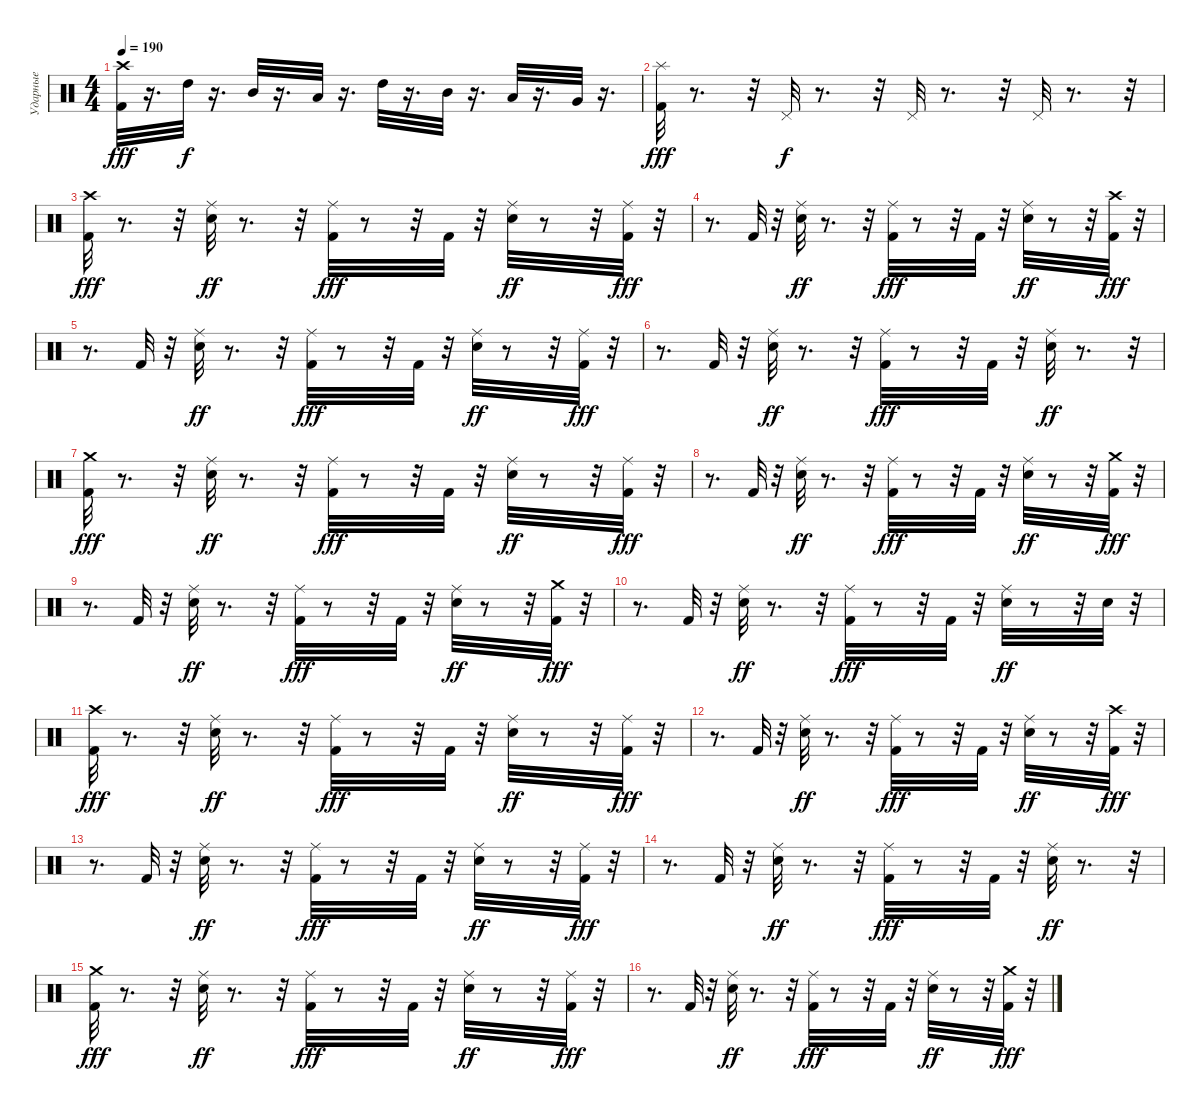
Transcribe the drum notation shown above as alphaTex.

\track ("Ударные" "Ударные") {instrument percussion}
\staff {score}
\articulation defaults
\ts (4 4)
\tempo 190
\clef neutral
\ks c
("Kick (hit) 2" "Crash high (hit)").32{dy fff} r.16{d} "High Tom (hit)".32{dy f} r.16{d} "Mid Tom (hit)".32 r.16{d} "Low Tom (hit)".32 r.16{d} "High Tom (hit)".32 r.16{d} "Mid Tom (hit)".32 r.16{d} "Low Tom (hit)".32 r.16{d} "Very Low Tom (hit)".32 r.16{d} |
("Splash (hit)" "Kick (hit) 2").32{dy fff} r.8{d} r.32 "Pedal Hi-Hat (hit)".32{dy f} r.8{d} r.32 "Pedal Hi-Hat (hit)".32 r.8{d} r.32 "Pedal Hi-Hat (hit)".32 r.8{d} r.32 |
("Crash high (hit)" "Kick (hit) 2").32{dy fff} r.8{d} r.32 ("Ride (middle)" "Snare (hit) 2").32{dy ff} r.8{d} r.32 ("Ride (middle)" "Kick (hit) 2").32{dy fff} r.8 r.32 "Kick (hit) 2".32 r.32 ("Ride (middle)" "Snare (hit) 2").32{dy ff} r.8 r.32 ("Ride (middle)" "Kick (hit) 2").32{dy fff} r.32 |
r.8{d} "Kick (hit) 2".32 r.32 ("Ride (middle)" "Snare (hit) 2").32{dy ff} r.8{d} r.32 ("Kick (hit) 2" "Ride (middle)").32{dy fff} r.8 r.32 "Kick (hit) 2".32 r.32 ("Snare (hit) 2" "Ride (middle)").32{dy ff} r.8 r.32 ("Crash high (hit)" "Kick (hit) 2").32{dy fff} r.32 |
r.8{d} "Kick (hit) 2".32 r.32 ("Ride (middle)" "Snare (hit) 2").32{dy ff} r.8{d} r.32 ("Kick (hit) 2" "Ride (middle)").32{dy fff} r.8 r.32 "Kick (hit) 2".32 r.32 ("Snare (hit) 2" "Ride (middle)").32{dy ff} r.8 r.32 ("Ride (middle)" "Kick (hit) 2").32{dy fff} r.32 |
r.8{d} "Kick (hit) 2".32 r.32 ("Ride (middle)" "Snare (hit) 2").32{dy ff} r.8{d} r.32 ("Ride (middle)" "Kick (hit) 2").32{dy fff} r.8 r.32 "Kick (hit) 2".32 r.32 ("Ride (middle)" "Snare (hit) 2").32{dy ff} r.8{d} r.32 |
("Crash medium (hit)" "Kick (hit) 2").32{dy fff} r.8{d} r.32 ("Ride (middle)" "Snare (hit) 2").32{dy ff} r.8{d} r.32 ("Ride (middle)" "Kick (hit) 2").32{dy fff} r.8 r.32 "Kick (hit) 2".32 r.32 ("Ride (middle)" "Snare (hit) 2").32{dy ff} r.8 r.32 ("Ride (middle)" "Kick (hit) 2").32{dy fff} r.32 |
r.8{d} "Kick (hit) 2".32 r.32 ("Ride (middle)" "Snare (hit) 2").32{dy ff} r.8{d} r.32 ("Kick (hit) 2" "Ride (middle)").32{dy fff} r.8 r.32 "Kick (hit) 2".32 r.32 ("Snare (hit) 2" "Ride (middle)").32{dy ff} r.8 r.32 ("Kick (hit) 2" "Crash medium (hit)").32{dy fff} r.32 |
r.8{d} "Kick (hit) 2".32 r.32 ("Ride (middle)" "Snare (hit) 2").32{dy ff} r.8{d} r.32 ("Kick (hit) 2" "Ride (middle)").32{dy fff} r.8 r.32 "Kick (hit) 2".32 r.32 ("Snare (hit) 2" "Ride (middle)").32{dy ff} r.8 r.32 ("Crash medium (hit)" "Kick (hit) 2").32{dy fff} r.32 |
r.8{d} "Kick (hit) 2".32 r.32 ("Ride (middle)" "Snare (hit) 2").32{dy ff} r.8{d} r.32 ("Ride (middle)" "Kick (hit) 2").32{dy fff} r.8 r.32 "Kick (hit) 2".32 r.32 ("Ride (middle)" "Snare (hit) 2").32{dy ff} r.8 r.32 "Snare (hit) 2".32 r.32 |
("Crash high (hit)" "Kick (hit) 2").32{dy fff} r.8{d} r.32 ("Ride (middle)" "Snare (hit) 2").32{dy ff} r.8{d} r.32 ("Ride (middle)" "Kick (hit) 2").32{dy fff} r.8 r.32 "Kick (hit) 2".32 r.32 ("Ride (middle)" "Snare (hit) 2").32{dy ff} r.8 r.32 ("Ride (middle)" "Kick (hit) 2").32{dy fff} r.32 |
r.8{d} "Kick (hit) 2".32 r.32 ("Ride (middle)" "Snare (hit) 2").32{dy ff} r.8{d} r.32 ("Kick (hit) 2" "Ride (middle)").32{dy fff} r.8 r.32 "Kick (hit) 2".32 r.32 ("Snare (hit) 2" "Ride (middle)").32{dy ff} r.8 r.32 ("Crash high (hit)" "Kick (hit) 2").32{dy fff} r.32 |
r.8{d} "Kick (hit) 2".32 r.32 ("Ride (middle)" "Snare (hit) 2").32{dy ff} r.8{d} r.32 ("Kick (hit) 2" "Ride (middle)").32{dy fff} r.8 r.32 "Kick (hit) 2".32 r.32 ("Snare (hit) 2" "Ride (middle)").32{dy ff} r.8 r.32 ("Ride (middle)" "Kick (hit) 2").32{dy fff} r.32 |
r.8{d} "Kick (hit) 2".32 r.32 ("Ride (middle)" "Snare (hit) 2").32{dy ff} r.8{d} r.32 ("Ride (middle)" "Kick (hit) 2").32{dy fff} r.8 r.32 "Kick (hit) 2".32 r.32 ("Ride (middle)" "Snare (hit) 2").32{dy ff} r.8{d} r.32 |
("Crash medium (hit)" "Kick (hit) 2").32{dy fff} r.8{d} r.32 ("Ride (middle)" "Snare (hit) 2").32{dy ff} r.8{d} r.32 ("Ride (middle)" "Kick (hit) 2").32{dy fff} r.8 r.32 "Kick (hit) 2".32 r.32 ("Ride (middle)" "Snare (hit) 2").32{dy ff} r.8 r.32 ("Ride (middle)" "Kick (hit) 2").32{dy fff} r.32 |
r.8{d} "Kick (hit) 2".32 r.32 ("Ride (middle)" "Snare (hit) 2").32{dy ff} r.8{d} r.32 ("Kick (hit) 2" "Ride (middle)").32{dy fff} r.8 r.32 "Kick (hit) 2".32 r.32 ("Snare (hit) 2" "Ride (middle)").32{dy ff} r.8 r.32 ("Kick (hit) 2" "Crash medium (hit)").32{dy fff} r.32
